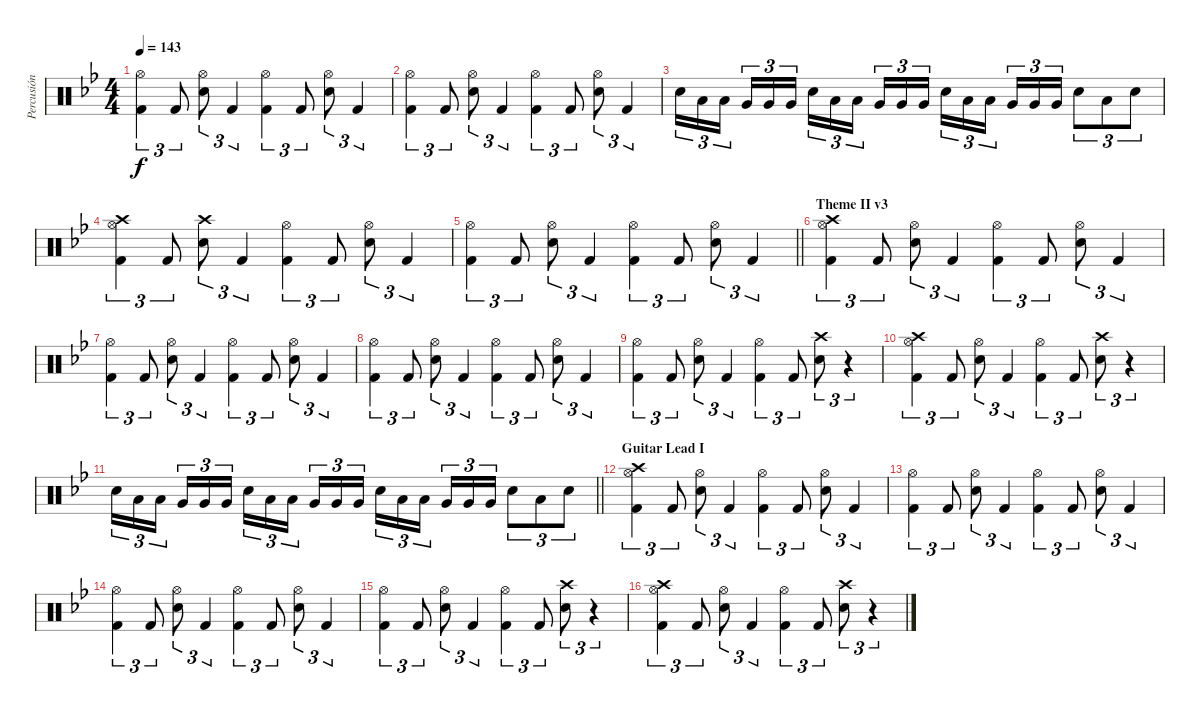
\track ("Percusión" "Percusión") {instrument percussion}
\staff {score}
\articulation defaults
\ts (4 4)
\tempo 143
\clef neutral
\ks bb
("Hi-Hat (open)" "Kick (hit) 2").4{tu (3 2) dy f} "Kick (hit) 2".8{tu (3 2)} ("Snare (hit) 2" "Hi-Hat (open)").8{tu (3 2)} "Kick (hit) 2".4{tu (3 2)} ("Hi-Hat (open)" "Kick (hit) 2").4{tu (3 2)} "Kick (hit) 2".8{tu (3 2)} ("Snare (hit) 2" "Hi-Hat (open)").8{tu (3 2)} "Kick (hit) 2".4{tu (3 2)} |
("Hi-Hat (open)" "Kick (hit) 2").4{tu (3 2)} "Kick (hit) 2".8{tu (3 2)} ("Snare (hit) 2" "Hi-Hat (open)").8{tu (3 2)} "Kick (hit) 2".4{tu (3 2)} ("Hi-Hat (open)" "Kick (hit) 2").4{tu (3 2)} "Kick (hit) 2".8{tu (3 2)} ("Snare (hit) 2" "Hi-Hat (open)").8{tu (3 2)} "Kick (hit) 2".4{tu (3 2)} |
"Snare (hit) 2".16{tu (3 2)} "Low Tom (hit)".16{tu (3 2)} "Low Tom (hit)".16{tu (3 2)} "Very Low Tom (hit)".16{tu (3 2)} "Very Low Tom (hit)".16{tu (3 2)} "Very Low Tom (hit)".16{tu (3 2)} "Snare (hit) 2".16{tu (3 2)} "Low Tom (hit)".16{tu (3 2)} "Low Tom (hit)".16{tu (3 2)} "Very Low Tom (hit)".16{tu (3 2)} "Very Low Tom (hit)".16{tu (3 2)} "Very Low Tom (hit)".16{tu (3 2)} "Snare (hit) 2".16{tu (3 2)} "Low Tom (hit)".16{tu (3 2)} "Low Tom (hit)".16{tu (3 2)} "Very Low Tom (hit)".16{tu (3 2)} "Very Low Tom (hit)".16{tu (3 2)} "Very Low Tom (hit)".16{tu (3 2)} "Snare (hit) 2".8{tu (3 2)} "Low Tom (hit)".8{tu (3 2)} "Snare (hit) 2".8{tu (3 2)} |
("Crash high (hit)" "Hi-Hat (open)" "Kick (hit) 2").4{tu (3 2)} "Kick (hit) 2".8{tu (3 2)} ("Crash high (hit)" "Snare (hit) 2").8{tu (3 2)} "Kick (hit) 2".4{tu (3 2)} ("Hi-Hat (open)" "Kick (hit) 2").4{tu (3 2)} "Kick (hit) 2".8{tu (3 2)} ("Snare (hit) 2" "Hi-Hat (open)").8{tu (3 2)} "Kick (hit) 2".4{tu (3 2)} |
\barLineRight lightlight
("Hi-Hat (open)" "Kick (hit) 2").4{tu (3 2)} "Kick (hit) 2".8{tu (3 2)} ("Snare (hit) 2" "Hi-Hat (open)").8{tu (3 2)} "Kick (hit) 2".4{tu (3 2)} ("Hi-Hat (open)" "Kick (hit) 2").4{tu (3 2)} "Kick (hit) 2".8{tu (3 2)} ("Snare (hit) 2" "Hi-Hat (open)").8{tu (3 2)} "Kick (hit) 2".4{tu (3 2)} |
\section ("" "Theme II v3")
("Crash high (hit)" "Hi-Hat (open)" "Kick (hit) 2").4{tu (3 2)} "Kick (hit) 2".8{tu (3 2)} ("Snare (hit) 2" "Hi-Hat (open)").8{tu (3 2)} "Kick (hit) 2".4{tu (3 2)} ("Hi-Hat (open)" "Kick (hit) 2").4{tu (3 2)} "Kick (hit) 2".8{tu (3 2)} ("Snare (hit) 2" "Hi-Hat (open)").8{tu (3 2)} "Kick (hit) 2".4{tu (3 2)} |
("Hi-Hat (open)" "Kick (hit) 2").4{tu (3 2)} "Kick (hit) 2".8{tu (3 2)} ("Snare (hit) 2" "Hi-Hat (open)").8{tu (3 2)} "Kick (hit) 2".4{tu (3 2)} ("Hi-Hat (open)" "Kick (hit) 2").4{tu (3 2)} "Kick (hit) 2".8{tu (3 2)} ("Snare (hit) 2" "Hi-Hat (open)").8{tu (3 2)} "Kick (hit) 2".4{tu (3 2)} |
("Hi-Hat (open)" "Kick (hit) 2").4{tu (3 2)} "Kick (hit) 2".8{tu (3 2)} ("Snare (hit) 2" "Hi-Hat (open)").8{tu (3 2)} "Kick (hit) 2".4{tu (3 2)} ("Hi-Hat (open)" "Kick (hit) 2").4{tu (3 2)} "Kick (hit) 2".8{tu (3 2)} ("Snare (hit) 2" "Hi-Hat (open)").8{tu (3 2)} "Kick (hit) 2".4{tu (3 2)} |
("Hi-Hat (open)" "Kick (hit) 2").4{tu (3 2)} "Kick (hit) 2".8{tu (3 2)} ("Snare (hit) 2" "Hi-Hat (open)").8{tu (3 2)} "Kick (hit) 2".4{tu (3 2)} ("Hi-Hat (open)" "Kick (hit) 2").4{tu (3 2)} "Kick (hit) 2".8{tu (3 2)} ("Crash high (hit)" "Snare (hit) 2").8{tu (3 2)} r.4{tu (3 2)} |
("Crash high (hit)" "Hi-Hat (open)" "Kick (hit) 2").4{tu (3 2)} "Kick (hit) 2".8{tu (3 2)} ("Snare (hit) 2" "Hi-Hat (open)").8{tu (3 2)} "Kick (hit) 2".4{tu (3 2)} ("Hi-Hat (open)" "Kick (hit) 2").4{tu (3 2)} "Kick (hit) 2".8{tu (3 2)} ("Crash high (hit)" "Snare (hit) 2").8{tu (3 2)} r.4{tu (3 2)} |
\barLineRight lightlight "Snare (hit) 2".16{tu (3 2)} "Low Tom (hit)".16{tu (3 2)} "Low Tom (hit)".16{tu (3 2)} "Very Low Tom (hit)".16{tu (3 2)} "Very Low Tom (hit)".16{tu (3 2)} "Very Low Tom (hit)".16{tu (3 2)} "Snare (hit) 2".16{tu (3 2)} "Low Tom (hit)".16{tu (3 2)} "Low Tom (hit)".16{tu (3 2)} "Very Low Tom (hit)".16{tu (3 2)} "Very Low Tom (hit)".16{tu (3 2)} "Very Low Tom (hit)".16{tu (3 2)} "Snare (hit) 2".16{tu (3 2)} "Low Tom (hit)".16{tu (3 2)} "Low Tom (hit)".16{tu (3 2)} "Very Low Tom (hit)".16{tu (3 2)} "Very Low Tom (hit)".16{tu (3 2)} "Very Low Tom (hit)".16{tu (3 2)} "Snare (hit) 2".8{tu (3 2)} "Low Tom (hit)".8{tu (3 2)} "Snare (hit) 2".8{tu (3 2)}
|
\section ("" "Guitar Lead I")
("Crash high (hit)" "Hi-Hat (open)" "Kick (hit) 2").4{tu (3 2)} "Kick (hit) 2".8{tu (3 2)} ("Snare (hit) 2" "Hi-Hat (open)").8{tu (3 2)} "Kick (hit) 2".4{tu (3 2)} ("Hi-Hat (open)" "Kick (hit) 2").4{tu (3 2)} "Kick (hit) 2".8{tu (3 2)} ("Snare (hit) 2" "Hi-Hat (open)").8{tu (3 2)} "Kick (hit) 2".4{tu (3 2)} |
("Hi-Hat (open)" "Kick (hit) 2").4{tu (3 2)} "Kick (hit) 2".8{tu (3 2)} ("Snare (hit) 2" "Hi-Hat (open)").8{tu (3 2)} "Kick (hit) 2".4{tu (3 2)} ("Hi-Hat (open)" "Kick (hit) 2").4{tu (3 2)} "Kick (hit) 2".8{tu (3 2)} ("Snare (hit) 2" "Hi-Hat (open)").8{tu (3 2)} "Kick (hit) 2".4{tu (3 2)} |
("Hi-Hat (open)" "Kick (hit) 2").4{tu (3 2)} "Kick (hit) 2".8{tu (3 2)} ("Snare (hit) 2" "Hi-Hat (open)").8{tu (3 2)} "Kick (hit) 2".4{tu (3 2)} ("Hi-Hat (open)" "Kick (hit) 2").4{tu (3 2)} "Kick (hit) 2".8{tu (3 2)} ("Snare (hit) 2" "Hi-Hat (open)").8{tu (3 2)} "Kick (hit) 2".4{tu (3 2)} |
("Hi-Hat (open)" "Kick (hit) 2").4{tu (3 2)} "Kick (hit) 2".8{tu (3 2)} ("Snare (hit) 2" "Hi-Hat (open)").8{tu (3 2)} "Kick (hit) 2".4{tu (3 2)} ("Hi-Hat (open)" "Kick (hit) 2").4{tu (3 2)} "Kick (hit) 2".8{tu (3 2)} ("Crash high (hit)" "Snare (hit) 2").8{tu (3 2)} r.4{tu (3 2)} |
("Crash high (hit)" "Hi-Hat (open)" "Kick (hit) 2").4{tu (3 2)} "Kick (hit) 2".8{tu (3 2)} ("Snare (hit) 2" "Hi-Hat (open)").8{tu (3 2)} "Kick (hit) 2".4{tu (3 2)} ("Hi-Hat (open)" "Kick (hit) 2").4{tu (3 2)} "Kick (hit) 2".8{tu (3 2)} ("Crash high (hit)" "Snare (hit) 2").8{tu (3 2)} r.4{tu (3 2)}
